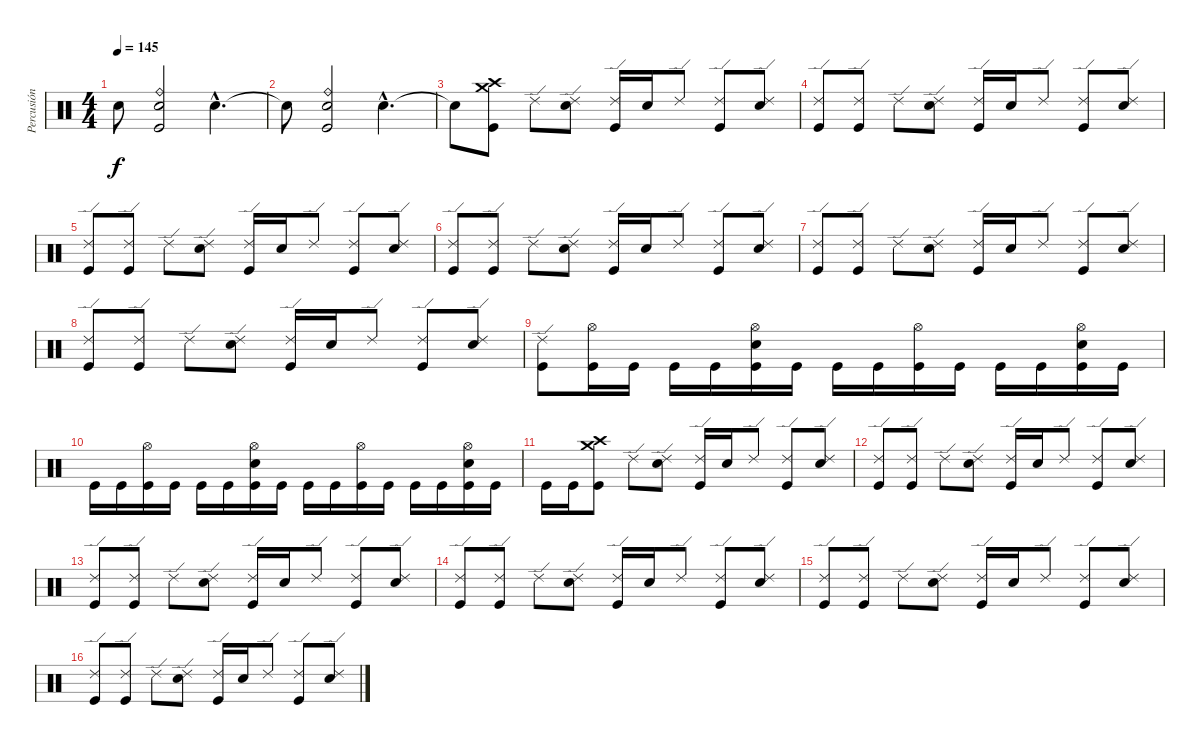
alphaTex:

\track ("Percusión" "Percusión") {instrument percussion}
\staff {score}
\articulation defaults
\ts (4 4)
\tempo 145
\clef neutral
\ks c "Snare (hit)"{t}.8{dy f}
("Ride (bell)" "Snare (hit) 2" "Kick (hit)").2 "Snare (hit) 2"{hac}.4{d} |
"Snare (hit)"{t}.8 ("Ride (bell)" "Snare (hit) 2" "Kick (hit)").2 "Snare (hit) 2"{hac}.4{d} |
"Snare (hit)"{t}.8 ("Crash high (hit)" "Crash medium (hit)" "Kick (hit)").8 "Ride (edge) 2".8 ("Ride (edge) 2" "Snare (hit) 2").8 ("Ride (edge) 2" "Kick (hit)").16 "Snare (hit) 2".16 "Ride (edge) 2".8 ("Ride (edge) 2" "Kick (hit)").8 ("Ride (edge) 2" "Snare (hit) 2").8 |
("Ride (edge) 2" "Kick (hit)").8 ("Ride (edge) 2" "Kick (hit)").8 "Ride (edge) 2".8 ("Ride (edge) 2" "Snare (hit) 2").8 ("Ride (edge) 2" "Kick (hit)").16 "Snare (hit) 2".16 "Ride (edge) 2".8 ("Ride (edge) 2" "Kick (hit)").8 ("Ride (edge) 2" "Snare (hit) 2").8 |
("Ride (edge) 2" "Kick (hit)").8 ("Ride (edge) 2" "Kick (hit)").8 "Ride (edge) 2".8 ("Ride (edge) 2" "Snare (hit) 2").8 ("Ride (edge) 2" "Kick (hit)").16 "Snare (hit) 2".16 "Ride (edge) 2".8 ("Ride (edge) 2" "Kick (hit)").8 ("Ride (edge) 2" "Snare (hit) 2").8 |
("Ride (edge) 2" "Kick (hit)").8 ("Ride (edge) 2" "Kick (hit)").8 "Ride (edge) 2".8 ("Ride (edge) 2" "Snare (hit) 2").8 ("Ride (edge) 2" "Kick (hit)").16 "Snare (hit) 2".16 "Ride (edge) 2".8 ("Ride (edge) 2" "Kick (hit)").8 ("Ride (edge) 2" "Snare (hit) 2").8 |
("Ride (edge) 2" "Kick (hit)").8 ("Ride (edge) 2" "Kick (hit)").8 "Ride (edge) 2".8 ("Ride (edge) 2" "Snare (hit) 2").8 ("Ride (edge) 2" "Kick (hit)").16 "Snare (hit) 2".16 "Ride (edge) 2".8 ("Ride (edge) 2" "Kick (hit)").8 ("Ride (edge) 2" "Snare (hit) 2").8 |
("Ride (edge) 2" "Kick (hit)").8 ("Ride (edge) 2" "Kick (hit)").8 "Ride (edge) 2".8 ("Ride (edge) 2" "Snare (hit) 2").8 ("Ride (edge) 2" "Kick (hit)").16 "Snare (hit) 2".16 "Ride (edge) 2".8 ("Ride (edge) 2" "Kick (hit)").8 ("Ride (edge) 2" "Snare (hit) 2").8 |
("Ride (edge) 2" "Kick (hit)").8 ("Hi-Hat (open)" "Kick (hit)").16 "Kick (hit)".16 "Kick (hit)".16 "Kick (hit)".16 ("Hi-Hat (open)" "Snare (hit) 2" "Kick (hit)").16 "Kick (hit)".16 "Kick (hit)".16 "Kick (hit)".16 ("Hi-Hat (open)" "Kick (hit)").16 "Kick (hit)".16 "Kick (hit)".16 "Kick (hit)".16 ("Hi-Hat (open)" "Snare (hit) 2" "Kick (hit)").16 "Kick (hit)".16 |
"Kick (hit)".16 "Kick (hit)".16 ("Hi-Hat (open)" "Kick (hit)").16 "Kick (hit)".16 "Kick (hit)".16 "Kick (hit)".16 ("Hi-Hat (open)" "Snare (hit) 2" "Kick (hit)").16 "Kick (hit)".16 "Kick (hit)".16 "Kick (hit)".16 ("Hi-Hat (open)" "Kick (hit)").16 "Kick (hit)".16 "Kick (hit)".16 "Kick (hit)".16 ("Hi-Hat (open)" "Snare (hit) 2" "Kick (hit)").16 "Kick (hit)".16 |
"Kick (hit)".16 "Kick (hit)".16 ("Crash high (hit)" "Crash medium (hit)" "Kick (hit)").8 "Ride (edge) 2".8 ("Ride (edge) 2" "Snare (hit) 2").8 ("Ride (edge) 2" "Kick (hit)").16 "Snare (hit) 2".16 "Ride (edge) 2".8 ("Ride (edge) 2" "Kick (hit)").8 ("Ride (edge) 2" "Snare (hit) 2").8 |
("Ride (edge) 2" "Kick (hit)").8 ("Ride (edge) 2" "Kick (hit)").8 "Ride (edge) 2".8 ("Ride (edge) 2" "Snare (hit) 2").8 ("Ride (edge) 2" "Kick (hit)").16 "Snare (hit) 2".16 "Ride (edge) 2".8 ("Ride (edge) 2" "Kick (hit)").8 ("Ride (edge) 2" "Snare (hit) 2").8 |
("Ride (edge) 2" "Kick (hit)").8 ("Ride (edge) 2" "Kick (hit)").8 "Ride (edge) 2".8 ("Ride (edge) 2" "Snare (hit) 2").8 ("Ride (edge) 2" "Kick (hit)").16 "Snare (hit) 2".16 "Ride (edge) 2".8 ("Ride (edge) 2" "Kick (hit)").8 ("Ride (edge) 2" "Snare (hit) 2").8 |
("Ride (edge) 2" "Kick (hit)").8 ("Ride (edge) 2" "Kick (hit)").8 "Ride (edge) 2".8 ("Ride (edge) 2" "Snare (hit) 2").8 ("Ride (edge) 2" "Kick (hit)").16 "Snare (hit) 2".16 "Ride (edge) 2".8 ("Ride (edge) 2" "Kick (hit)").8 ("Ride (edge) 2" "Snare (hit) 2").8 |
("Ride (edge) 2" "Kick (hit)").8 ("Ride (edge) 2" "Kick (hit)").8 "Ride (edge) 2".8 ("Ride (edge) 2" "Snare (hit) 2").8 ("Ride (edge) 2" "Kick (hit)").16 "Snare (hit) 2".16 "Ride (edge) 2".8 ("Ride (edge) 2" "Kick (hit)").8 ("Ride (edge) 2" "Snare (hit) 2").8 |
("Ride (edge) 2" "Kick (hit)").8 ("Ride (edge) 2" "Kick (hit)").8 "Ride (edge) 2".8 ("Ride (edge) 2" "Snare (hit) 2").8 ("Ride (edge) 2" "Kick (hit)").16 "Snare (hit) 2".16 "Ride (edge) 2".8 ("Ride (edge) 2" "Kick (hit)").8 ("Ride (edge) 2" "Snare (hit) 2").8
